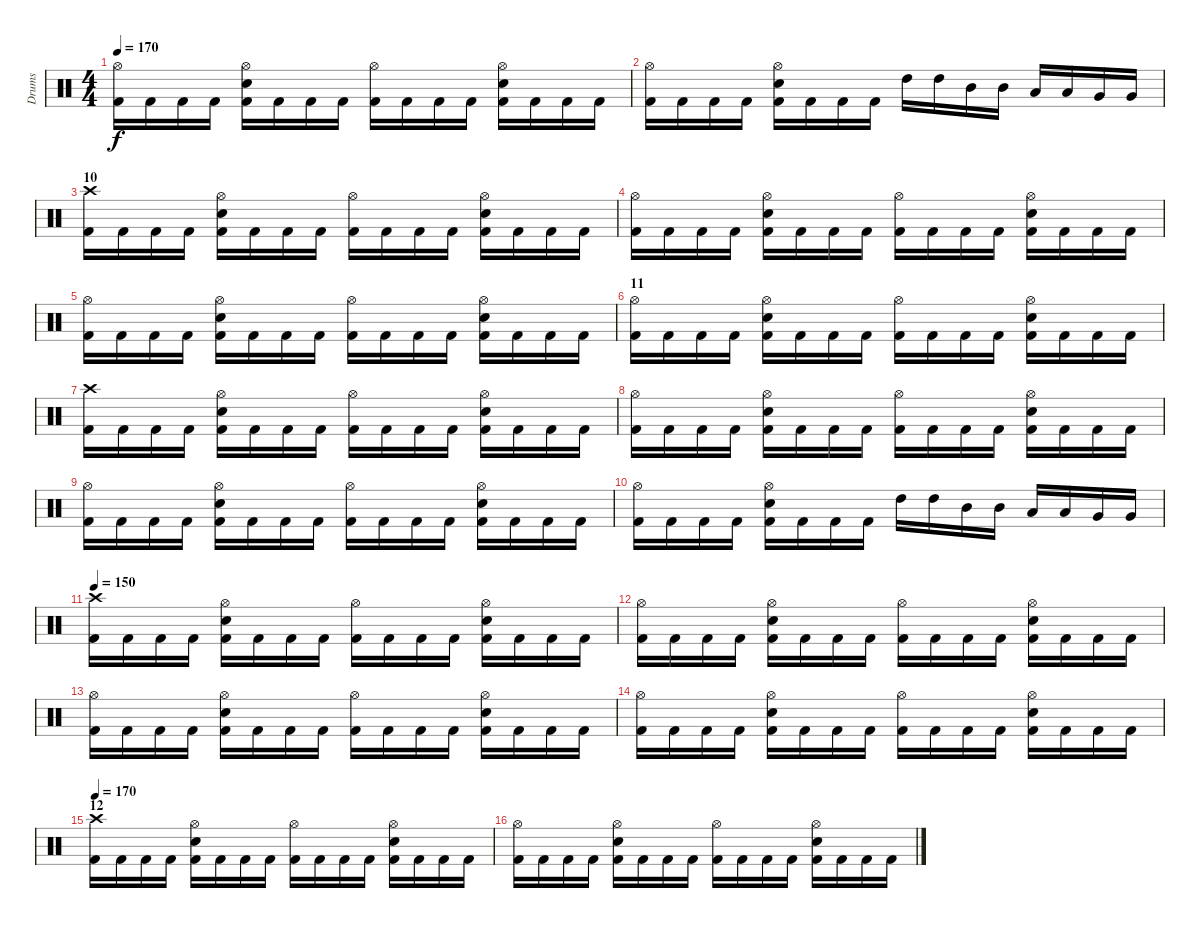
\track ("Drums " "Drums ") {instrument percussion}
\staff {score}
\articulation defaults
\ts (4 4)
\tempo 170
\clef neutral
\ks c
("Hi-Hat (open)" "Kick (hit) 2").16{dy f} "Kick (hit) 2".16 "Kick (hit) 2".16 "Kick (hit) 2".16 ("Hi-Hat (open)" "Electric Snare (hit)" "Kick (hit) 2").16 "Kick (hit) 2".16 "Kick (hit) 2".16 "Kick (hit) 2".16 ("Hi-Hat (open)" "Kick (hit) 2").16 "Kick (hit) 2".16 "Kick (hit) 2".16 "Kick (hit) 2".16 ("Hi-Hat (open)" "Electric Snare (hit)" "Kick (hit) 2").16 "Kick (hit) 2".16 "Kick (hit) 2".16 "Kick (hit) 2".16 |
("Hi-Hat (open)" "Kick (hit) 2").16 "Kick (hit) 2".16 "Kick (hit) 2".16 "Kick (hit) 2".16 ("Hi-Hat (open)" "Electric Snare (hit)" "Kick (hit) 2").16 "Kick (hit) 2".16 "Kick (hit) 2".16 "Kick (hit) 2".16 "High Tom (hit)".16 "High Tom (hit)".16 "Mid Tom (hit)".16 "Mid Tom (hit)".16 "Low Tom (hit)".16 "Low Tom (hit)".16 "Very Low Tom (hit)".16 "Very Low Tom (hit)".16 |
\section ("" "10")
("Crash high (hit)" "Kick (hit) 2").16 "Kick (hit) 2".16 "Kick (hit) 2".16 "Kick (hit) 2".16 ("Hi-Hat (open)" "Electric Snare (hit)" "Kick (hit) 2").16 "Kick (hit) 2".16 "Kick (hit) 2".16 "Kick (hit) 2".16 ("Hi-Hat (open)" "Kick (hit) 2").16 "Kick (hit) 2".16 "Kick (hit) 2".16 "Kick (hit) 2".16 ("Hi-Hat (open)" "Electric Snare (hit)" "Kick (hit) 2").16 "Kick (hit) 2".16 "Kick (hit) 2".16 "Kick (hit) 2".16 |
("Hi-Hat (open)" "Kick (hit) 2").16 "Kick (hit) 2".16 "Kick (hit) 2".16 "Kick (hit) 2".16 ("Hi-Hat (open)" "Electric Snare (hit)" "Kick (hit) 2").16 "Kick (hit) 2".16 "Kick (hit) 2".16 "Kick (hit) 2".16 ("Hi-Hat (open)" "Kick (hit) 2").16 "Kick (hit) 2".16 "Kick (hit) 2".16 "Kick (hit) 2".16 ("Hi-Hat (open)" "Electric Snare (hit)" "Kick (hit) 2").16 "Kick (hit) 2".16 "Kick (hit) 2".16 "Kick (hit) 2".16 |
("Hi-Hat (open)" "Kick (hit) 2").16 "Kick (hit) 2".16 "Kick (hit) 2".16 "Kick (hit) 2".16 ("Hi-Hat (open)" "Electric Snare (hit)" "Kick (hit) 2").16 "Kick (hit) 2".16 "Kick (hit) 2".16 "Kick (hit) 2".16 ("Hi-Hat (open)" "Kick (hit) 2").16 "Kick (hit) 2".16 "Kick (hit) 2".16 "Kick (hit) 2".16 ("Hi-Hat (open)" "Electric Snare (hit)" "Kick (hit) 2").16 "Kick (hit) 2".16 "Kick (hit) 2".16 "Kick (hit) 2".16 |
\section ("" "11")
("Hi-Hat (open)" "Kick (hit) 2").16 "Kick (hit) 2".16 "Kick (hit) 2".16 "Kick (hit) 2".16 ("Hi-Hat (open)" "Electric Snare (hit)" "Kick (hit) 2").16 "Kick (hit) 2".16 "Kick (hit) 2".16 "Kick (hit) 2".16 ("Hi-Hat (open)" "Kick (hit) 2").16 "Kick (hit) 2".16 "Kick (hit) 2".16 "Kick (hit) 2".16 ("Hi-Hat (open)" "Electric Snare (hit)" "Kick (hit) 2").16 "Kick (hit) 2".16 "Kick (hit) 2".16 "Kick (hit) 2".16 |
("Crash high (hit)" "Kick (hit) 2").16 "Kick (hit) 2".16 "Kick (hit) 2".16 "Kick (hit) 2".16 ("Hi-Hat (open)" "Electric Snare (hit)" "Kick (hit) 2").16 "Kick (hit) 2".16 "Kick (hit) 2".16 "Kick (hit) 2".16 ("Hi-Hat (open)" "Kick (hit) 2").16 "Kick (hit) 2".16 "Kick (hit) 2".16 "Kick (hit) 2".16 ("Hi-Hat (open)" "Electric Snare (hit)" "Kick (hit) 2").16 "Kick (hit) 2".16 "Kick (hit) 2".16 "Kick (hit) 2".16 |
("Hi-Hat (open)" "Kick (hit) 2").16 "Kick (hit) 2".16 "Kick (hit) 2".16 "Kick (hit) 2".16 ("Hi-Hat (open)" "Electric Snare (hit)" "Kick (hit) 2").16 "Kick (hit) 2".16 "Kick (hit) 2".16 "Kick (hit) 2".16 ("Hi-Hat (open)" "Kick (hit) 2").16 "Kick (hit) 2".16 "Kick (hit) 2".16 "Kick (hit) 2".16 ("Hi-Hat (open)" "Electric Snare (hit)" "Kick (hit) 2").16 "Kick (hit) 2".16 "Kick (hit) 2".16 "Kick (hit) 2".16 |
("Hi-Hat (open)" "Kick (hit) 2").16 "Kick (hit) 2".16 "Kick (hit) 2".16 "Kick (hit) 2".16 ("Hi-Hat (open)" "Electric Snare (hit)" "Kick (hit) 2").16 "Kick (hit) 2".16 "Kick (hit) 2".16 "Kick (hit) 2".16 ("Hi-Hat (open)" "Kick (hit) 2").16 "Kick (hit) 2".16 "Kick (hit) 2".16 "Kick (hit) 2".16 ("Hi-Hat (open)" "Electric Snare (hit)" "Kick (hit) 2").16 "Kick (hit) 2".16 "Kick (hit) 2".16 "Kick (hit) 2".16 |
("Hi-Hat (open)" "Kick (hit) 2").16 "Kick (hit) 2".16 "Kick (hit) 2".16 "Kick (hit) 2".16 ("Hi-Hat (open)" "Electric Snare (hit)" "Kick (hit) 2").16 "Kick (hit) 2".16 "Kick (hit) 2".16 "Kick (hit) 2".16 "High Tom (hit)".16 "High Tom (hit)".16 "Mid Tom (hit)".16 "Mid Tom (hit)".16 "Low Tom (hit)".16 "Low Tom (hit)".16 "Very Low Tom (hit)".16 "Very Low Tom (hit)".16 |
\tempo 150
("Crash high (hit)" "Kick (hit) 2").16 "Kick (hit) 2".16 "Kick (hit) 2".16 "Kick (hit) 2".16 ("Hi-Hat (open)" "Electric Snare (hit)" "Kick (hit) 2").16 "Kick (hit) 2".16 "Kick (hit) 2".16 "Kick (hit) 2".16 ("Hi-Hat (open)" "Kick (hit) 2").16 "Kick (hit) 2".16 "Kick (hit) 2".16 "Kick (hit) 2".16 ("Hi-Hat (open)" "Electric Snare (hit)" "Kick (hit) 2").16 "Kick (hit) 2".16 "Kick (hit) 2".16 "Kick (hit) 2".16 |
("Hi-Hat (open)" "Kick (hit) 2").16 "Kick (hit) 2".16 "Kick (hit) 2".16 "Kick (hit) 2".16 ("Hi-Hat (open)" "Electric Snare (hit)" "Kick (hit) 2").16 "Kick (hit) 2".16 "Kick (hit) 2".16 "Kick (hit) 2".16 ("Hi-Hat (open)" "Kick (hit) 2").16 "Kick (hit) 2".16 "Kick (hit) 2".16 "Kick (hit) 2".16 ("Hi-Hat (open)" "Electric Snare (hit)" "Kick (hit) 2").16 "Kick (hit) 2".16 "Kick (hit) 2".16 "Kick (hit) 2".16 |
("Hi-Hat (open)" "Kick (hit) 2").16 "Kick (hit) 2".16 "Kick (hit) 2".16 "Kick (hit) 2".16 ("Hi-Hat (open)" "Electric Snare (hit)" "Kick (hit) 2").16 "Kick (hit) 2".16 "Kick (hit) 2".16 "Kick (hit) 2".16 ("Hi-Hat (open)" "Kick (hit) 2").16 "Kick (hit) 2".16 "Kick (hit) 2".16 "Kick (hit) 2".16 ("Hi-Hat (open)" "Electric Snare (hit)" "Kick (hit) 2").16 "Kick (hit) 2".16 "Kick (hit) 2".16 "Kick (hit) 2".16 |
("Hi-Hat (open)" "Kick (hit) 2").16 "Kick (hit) 2".16 "Kick (hit) 2".16 "Kick (hit) 2".16 ("Hi-Hat (open)" "Electric Snare (hit)" "Kick (hit) 2").16 "Kick (hit) 2".16 "Kick (hit) 2".16 "Kick (hit) 2".16 ("Hi-Hat (open)" "Kick (hit) 2").16 "Kick (hit) 2".16 "Kick (hit) 2".16 "Kick (hit) 2".16 ("Hi-Hat (open)" "Electric Snare (hit)" "Kick (hit) 2").16 "Kick (hit) 2".16 "Kick (hit) 2".16 "Kick (hit) 2".16 |
\section ("" "12")
\tempo 170
("Crash high (hit)" "Kick (hit) 2").16 "Kick (hit) 2".16 "Kick (hit) 2".16 "Kick (hit) 2".16 ("Hi-Hat (open)" "Electric Snare (hit)" "Kick (hit) 2").16 "Kick (hit) 2".16 "Kick (hit) 2".16 "Kick (hit) 2".16 ("Hi-Hat (open)" "Kick (hit) 2").16 "Kick (hit) 2".16 "Kick (hit) 2".16 "Kick (hit) 2".16 ("Hi-Hat (open)" "Electric Snare (hit)" "Kick (hit) 2").16 "Kick (hit) 2".16 "Kick (hit) 2".16 "Kick (hit) 2".16 |
("Hi-Hat (open)" "Kick (hit) 2").16 "Kick (hit) 2".16 "Kick (hit) 2".16 "Kick (hit) 2".16 ("Hi-Hat (open)" "Electric Snare (hit)" "Kick (hit) 2").16 "Kick (hit) 2".16 "Kick (hit) 2".16 "Kick (hit) 2".16 ("Hi-Hat (open)" "Kick (hit) 2").16 "Kick (hit) 2".16 "Kick (hit) 2".16 "Kick (hit) 2".16 ("Hi-Hat (open)" "Electric Snare (hit)" "Kick (hit) 2").16 "Kick (hit) 2".16 "Kick (hit) 2".16 "Kick (hit) 2".16
